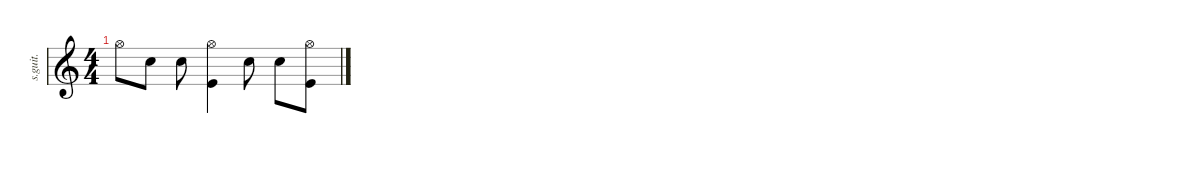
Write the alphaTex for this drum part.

\defaultSystemsLayout 4
\hideDynamics
\bracketExtendMode nobrackets
\track ("Joey Jordison" "s.guit.") {instrument percussion}
\staff {score}
\articulation defaults
\ts (4 4)
\tempo (160 hide)
\clef g2
\ks c "Hi-Hat (open)".8{lyrics (0 "") lyrics (1 "") lyrics (2 "") lyrics (3 "") lyrics (4 "") dy ff} "Snare (hit) 2".8{lyrics (0 "") lyrics (1 "") lyrics (2 "") lyrics (3 "") lyrics (4 "")} "Snare (hit) 2".8{lyrics (0 "") lyrics (1 "") lyrics (2 "") lyrics (3 "") lyrics (4 "")}
("Hi-Hat (open)" "Kick (hit)").4{lyrics (0 "") lyrics (1 "") lyrics (2 "") lyrics (3 "") lyrics (4 "")} "Snare (hit) 2".8{lyrics (0 "") lyrics (1 "") lyrics (2 "") lyrics (3 "") lyrics (4 "")} "Snare (hit) 2".8{lyrics (0 "") lyrics (1 "") lyrics (2 "") lyrics (3 "") lyrics (4 "")} ("Hi-Hat (open)" "Kick (hit)").8{lyrics (0 "") lyrics (1 "") lyrics (2 "") lyrics (3 "") lyrics (4 "")}
